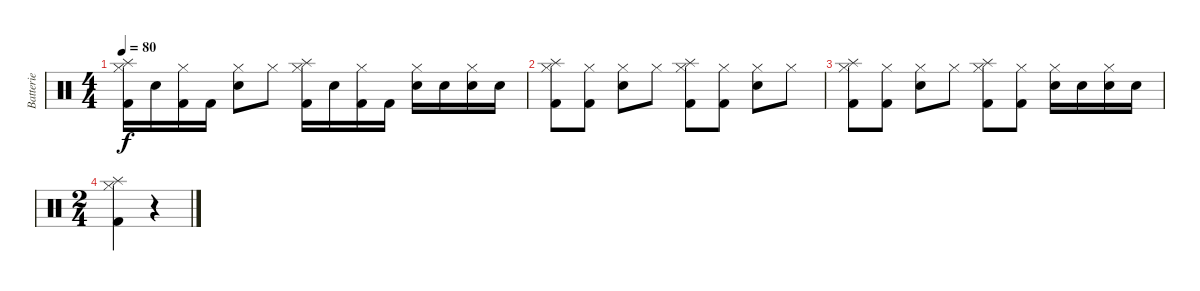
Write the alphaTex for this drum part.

\track ("Batterie" "Batterie") {instrument percussion}
\staff {score}
\articulation defaults
\ts (4 4)
\tempo 80
\clef neutral
\ks c
("Splash (hit)" "Hi-Hat (closed)" "Kick (hit) 2").16{dy f} "Snare (hit) 2".16 ("Hi-Hat (closed)" "Kick (hit) 2").16 "Kick (hit) 2".16 ("Hi-Hat (closed)" "Snare (hit) 2").8 "Hi-Hat (closed)".8 ("Splash (hit)" "Hi-Hat (closed)" "Kick (hit) 2").16 "Snare (hit) 2".16 ("Hi-Hat (closed)" "Kick (hit) 2").16 "Kick (hit) 2".16 ("Hi-Hat (closed)" "Snare (hit) 2").16 "Snare (hit) 2".16 ("Hi-Hat (closed)" "Snare (hit) 2").16 "Snare (hit) 2".16 |
("Splash (hit)" "Hi-Hat (closed)" "Kick (hit) 2").8 ("Hi-Hat (closed)" "Kick (hit) 2").8 ("Hi-Hat (closed)" "Snare (hit) 2").8 "Hi-Hat (closed)".8 ("Splash (hit)" "Hi-Hat (closed)" "Kick (hit) 2").8 ("Hi-Hat (closed)" "Kick (hit) 2").8 ("Hi-Hat (closed)" "Snare (hit) 2").8 "Hi-Hat (closed)".8 |
("Splash (hit)" "Hi-Hat (closed)" "Kick (hit) 2").8 ("Hi-Hat (closed)" "Kick (hit) 2").8 ("Hi-Hat (closed)" "Snare (hit) 2").8 "Hi-Hat (closed)".8 ("Splash (hit)" "Hi-Hat (closed)" "Kick (hit) 2").8 ("Hi-Hat (closed)" "Kick (hit) 2").8 ("Hi-Hat (closed)" "Snare (hit) 2").16 "Snare (hit) 2".16 ("Hi-Hat (closed)" "Snare (hit) 2").16 "Snare (hit) 2".16 |
\ts (2 4)
("Splash (hit)" "Hi-Hat (closed)" "Kick (hit) 2").4 r.4
